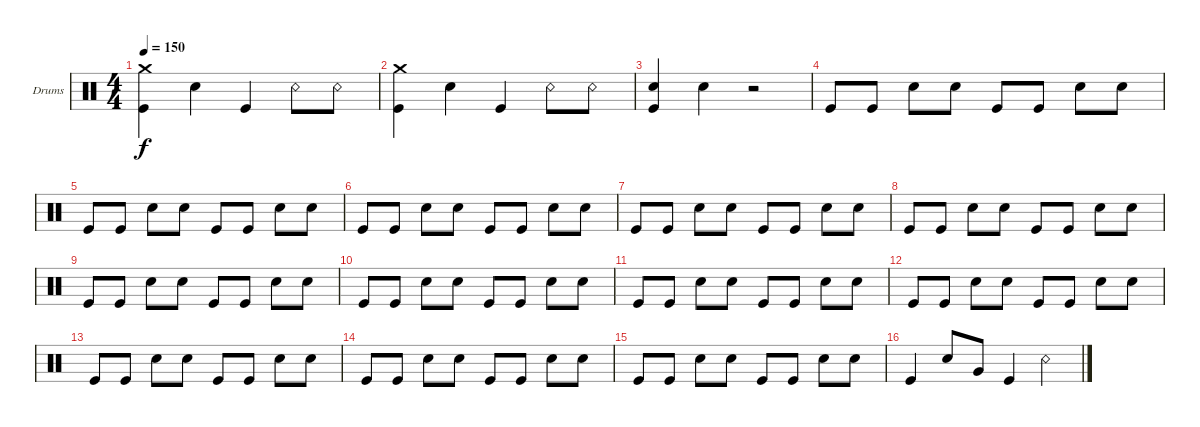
\bracketExtendMode groupsimilarinstruments
\firstSystemTrackNameOrientation horizontal
\otherSystemsTrackNameOrientation horizontal
\track ("Drumkit" "Drums") {instrument percussion}
\staff {score}
\articulation defaults
\ts (4 4)
\tempo 150
\clef neutral
\scale
0.333333
\ks c
("Kick (hit)" "Crash medium (hit)").4{dy f} "Snare (hit) 2".4 "Kick (hit)".4 "Snare (rim shot)".8 "Snare (rim shot)".8 |
\scale
0.333333 ("Kick (hit)" "Crash medium (hit)").4 "Snare (hit) 2".4 "Kick (hit)".4 "Snare (rim shot)".8 "Snare (rim shot)".8 |
\scale
0.333333 ("Kick (hit)" "Snare (hit) 2").4 "Snare (hit) 2".4 r.2 |
\scale
0.333333 "Kick (hit)".8 "Kick (hit)".8 "Snare (hit) 2".8 "Snare (hit) 2".8 "Kick (hit)".8 "Kick (hit)".8 "Snare (hit) 2".8 "Snare (hit) 2".8 |
\scale
0.333333 "Kick (hit)".8 "Kick (hit)".8 "Snare (hit) 2".8 "Snare (hit) 2".8 "Kick (hit)".8 "Kick (hit)".8 "Snare (hit) 2".8 "Snare (hit) 2".8 |
\scale
0.333333 "Kick (hit)".8 "Kick (hit)".8 "Snare (hit) 2".8 "Snare (hit) 2".8 "Kick (hit)".8 "Kick (hit)".8 "Snare (hit) 2".8 "Snare (hit) 2".8 |
\scale
0.333333 "Kick (hit)".8 "Kick (hit)".8 "Snare (hit) 2".8 "Snare (hit) 2".8 "Kick (hit)".8 "Kick (hit)".8 "Snare (hit) 2".8 "Snare (hit) 2".8 |
\scale
0.333333 "Kick (hit)".8 "Kick (hit)".8 "Snare (hit) 2".8 "Snare (hit) 2".8 "Kick (hit)".8 "Kick (hit)".8 "Snare (hit) 2".8 "Snare (hit) 2".8 |
\scale
0.333333 "Kick (hit)".8 "Kick (hit)".8 "Snare (hit) 2".8 "Snare (hit) 2".8 "Kick (hit)".8 "Kick (hit)".8 "Snare (hit) 2".8 "Snare (hit) 2".8 |
\scale
0.333333 "Kick (hit)".8 "Kick (hit)".8 "Snare (hit) 2".8 "Snare (hit) 2".8 "Kick (hit)".8 "Kick (hit)".8 "Snare (hit) 2".8 "Snare (hit) 2".8 |
\scale
0.333333 "Kick (hit)".8 "Kick (hit)".8 "Snare (hit) 2".8 "Snare (hit) 2".8 "Kick (hit)".8 "Kick (hit)".8 "Snare (hit) 2".8 "Snare (hit) 2".8 |
\scale
0.333333 "Kick (hit)".8 "Kick (hit)".8 "Snare (hit) 2".8 "Snare (hit) 2".8 "Kick (hit)".8 "Kick (hit)".8 "Snare (hit) 2".8 "Snare (hit) 2".8 |
\scale
0.333333 "Kick (hit)".8 "Kick (hit)".8 "Snare (hit) 2".8 "Snare (hit) 2".8 "Kick (hit)".8 "Kick (hit)".8 "Snare (hit) 2".8 "Snare (hit) 2".8 |
\scale
0.333333 "Kick (hit)".8 "Kick (hit)".8 "Snare (hit) 2".8 "Snare (hit) 2".8 "Kick (hit)".8 "Kick (hit)".8 "Snare (hit) 2".8 "Snare (hit) 2".8 |
\scale
0.333333 "Kick (hit)".8 "Kick (hit)".8 "Snare (hit) 2".8 "Snare (hit) 2".8 "Kick (hit)".8 "Kick (hit)".8 "Snare (hit) 2".8 "Snare (hit) 2".8 |
\scale
0.333333 "Kick (hit)".4 "Snare (hit) 2".8 "Very Low Tom (hit)".8 "Kick (hit)".4 "Snare (rim shot)".4
